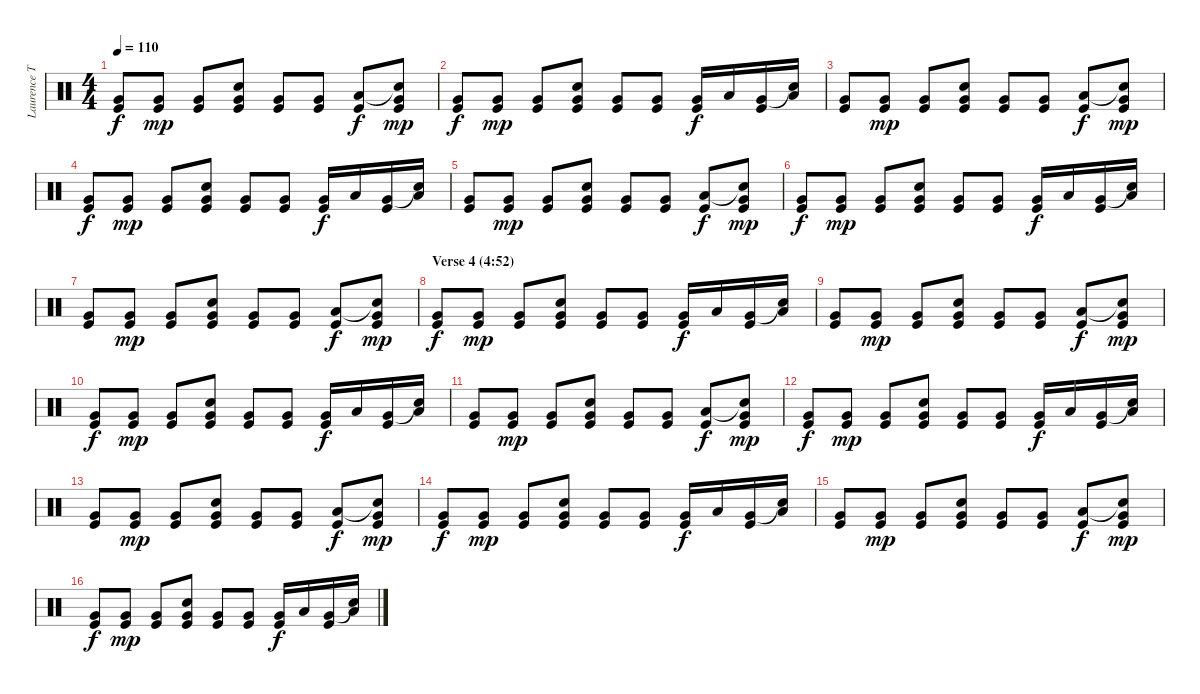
\track ("Laurence Tolhurst (drums)" "Laurence T") {instrument percussion}
\staff {score}
\articulation defaults
\ts (4 4)
\tempo 110
\clef neutral
\ks c
("Very Low Tom (hit)" "Kick (hit)").8{dy f} ("Very Low Tom (hit)" "Kick (hit)").8{dy mp} ("Very Low Tom (hit)" "Kick (hit)").8 ("Snare (hit) 2" "Very Low Tom (hit)" "Kick (hit)").8 ("Very Low Tom (hit)" "Kick (hit)").8 ("Very Low Tom (hit)" "Kick (hit)").8 ("Low Tom (hit)" "Kick (hit)").8{dy f} ("Snare (hit)"{t} "Very Low Tom (hit)" "Kick (hit)").8{dy mp} |
("Very Low Tom (hit)" "Kick (hit)").8{dy f} ("Very Low Tom (hit)" "Kick (hit)").8{dy mp} ("Very Low Tom (hit)" "Kick (hit)").8 ("Snare (hit) 2" "Very Low Tom (hit)" "Kick (hit)").8 ("Very Low Tom (hit)" "Kick (hit)").8 ("Very Low Tom (hit)" "Kick (hit)").8 ("Very Low Tom (hit)" "Kick (hit)").16{dy f} "Low Tom (hit)".16 ("Very Low Tom (hit)" "Kick (hit)").16 ("Snare (hit)"{t} "Low Tom (hit)").16 |
("Very Low Tom (hit)" "Kick (hit)").8 ("Very Low Tom (hit)" "Kick (hit)").8{dy mp} ("Very Low Tom (hit)" "Kick (hit)").8 ("Snare (hit) 2" "Very Low Tom (hit)" "Kick (hit)").8 ("Very Low Tom (hit)" "Kick (hit)").8 ("Very Low Tom (hit)" "Kick (hit)").8 ("Low Tom (hit)" "Kick (hit)").8{dy f} ("Snare (hit)"{t} "Very Low Tom (hit)" "Kick (hit)").8{dy mp} |
("Very Low Tom (hit)" "Kick (hit)").8{dy f} ("Very Low Tom (hit)" "Kick (hit)").8{dy mp} ("Very Low Tom (hit)" "Kick (hit)").8 ("Snare (hit) 2" "Very Low Tom (hit)" "Kick (hit)").8 ("Very Low Tom (hit)" "Kick (hit)").8 ("Very Low Tom (hit)" "Kick (hit)").8 ("Very Low Tom (hit)" "Kick (hit)").16{dy f} "Low Tom (hit)".16 ("Very Low Tom (hit)" "Kick (hit)").16 ("Snare (hit)"{t} "Low Tom (hit)").16 |
("Very Low Tom (hit)" "Kick (hit)").8 ("Very Low Tom (hit)" "Kick (hit)").8{dy mp} ("Very Low Tom (hit)" "Kick (hit)").8 ("Snare (hit) 2" "Very Low Tom (hit)" "Kick (hit)").8 ("Very Low Tom (hit)" "Kick (hit)").8 ("Very Low Tom (hit)" "Kick (hit)").8 ("Low Tom (hit)" "Kick (hit)").8{dy f} ("Snare (hit)"{t} "Very Low Tom (hit)" "Kick (hit)").8{dy mp} |
("Very Low Tom (hit)" "Kick (hit)").8{dy f} ("Very Low Tom (hit)" "Kick (hit)").8{dy mp} ("Very Low Tom (hit)" "Kick (hit)").8 ("Snare (hit) 2" "Very Low Tom (hit)" "Kick (hit)").8 ("Very Low Tom (hit)" "Kick (hit)").8 ("Very Low Tom (hit)" "Kick (hit)").8 ("Very Low Tom (hit)" "Kick (hit)").16{dy f} "Low Tom (hit)".16 ("Very Low Tom (hit)" "Kick (hit)").16 ("Snare (hit)"{t} "Low Tom (hit)").16 |
("Very Low Tom (hit)" "Kick (hit)").8 ("Very Low Tom (hit)" "Kick (hit)").8{dy mp} ("Very Low Tom (hit)" "Kick (hit)").8 ("Snare (hit) 2" "Very Low Tom (hit)" "Kick (hit)").8 ("Very Low Tom (hit)" "Kick (hit)").8 ("Very Low Tom (hit)" "Kick (hit)").8 ("Low Tom (hit)" "Kick (hit)").8{dy f} ("Snare (hit)"{t} "Very Low Tom (hit)" "Kick (hit)").8{dy mp} |
\section ("" "Verse 4 (4:52)")
("Very Low Tom (hit)" "Kick (hit)").8{dy f} ("Very Low Tom (hit)" "Kick (hit)").8{dy mp} ("Very Low Tom (hit)" "Kick (hit)").8 ("Snare (hit) 2" "Very Low Tom (hit)" "Kick (hit)").8 ("Very Low Tom (hit)" "Kick (hit)").8 ("Very Low Tom (hit)" "Kick (hit)").8 ("Very Low Tom (hit)" "Kick (hit)").16{dy f} "Low Tom (hit)".16 ("Very Low Tom (hit)" "Kick (hit)").16 ("Snare (hit)"{t} "Low Tom (hit)").16 |
("Very Low Tom (hit)" "Kick (hit)").8 ("Very Low Tom (hit)" "Kick (hit)").8{dy mp} ("Very Low Tom (hit)" "Kick (hit)").8 ("Snare (hit) 2" "Very Low Tom (hit)" "Kick (hit)").8 ("Very Low Tom (hit)" "Kick (hit)").8 ("Very Low Tom (hit)" "Kick (hit)").8 ("Low Tom (hit)" "Kick (hit)").8{dy f} ("Snare (hit)"{t} "Very Low Tom (hit)" "Kick (hit)").8{dy mp} |
("Very Low Tom (hit)" "Kick (hit)").8{dy f} ("Very Low Tom (hit)" "Kick (hit)").8{dy mp} ("Very Low Tom (hit)" "Kick (hit)").8 ("Snare (hit) 2" "Very Low Tom (hit)" "Kick (hit)").8 ("Very Low Tom (hit)" "Kick (hit)").8 ("Very Low Tom (hit)" "Kick (hit)").8 ("Very Low Tom (hit)" "Kick (hit)").16{dy f} "Low Tom (hit)".16 ("Very Low Tom (hit)" "Kick (hit)").16 ("Snare (hit)"{t} "Low Tom (hit)").16 |
("Very Low Tom (hit)" "Kick (hit)").8 ("Very Low Tom (hit)" "Kick (hit)").8{dy mp} ("Very Low Tom (hit)" "Kick (hit)").8 ("Snare (hit) 2" "Very Low Tom (hit)" "Kick (hit)").8 ("Very Low Tom (hit)" "Kick (hit)").8 ("Very Low Tom (hit)" "Kick (hit)").8 ("Low Tom (hit)" "Kick (hit)").8{dy f} ("Snare (hit)"{t} "Very Low Tom (hit)" "Kick (hit)").8{dy mp} |
("Very Low Tom (hit)" "Kick (hit)").8{dy f} ("Very Low Tom (hit)" "Kick (hit)").8{dy mp} ("Very Low Tom (hit)" "Kick (hit)").8 ("Snare (hit) 2" "Very Low Tom (hit)" "Kick (hit)").8 ("Very Low Tom (hit)" "Kick (hit)").8 ("Very Low Tom (hit)" "Kick (hit)").8 ("Very Low Tom (hit)" "Kick (hit)").16{dy f} "Low Tom (hit)".16 ("Very Low Tom (hit)" "Kick (hit)").16 ("Snare (hit)"{t} "Low Tom (hit)").16 |
("Very Low Tom (hit)" "Kick (hit)").8 ("Very Low Tom (hit)" "Kick (hit)").8{dy mp} ("Very Low Tom (hit)" "Kick (hit)").8 ("Snare (hit) 2" "Very Low Tom (hit)" "Kick (hit)").8 ("Very Low Tom (hit)" "Kick (hit)").8 ("Very Low Tom (hit)" "Kick (hit)").8 ("Low Tom (hit)" "Kick (hit)").8{dy f} ("Snare (hit)"{t} "Very Low Tom (hit)" "Kick (hit)").8{dy mp} |
("Very Low Tom (hit)" "Kick (hit)").8{dy f} ("Very Low Tom (hit)" "Kick (hit)").8{dy mp} ("Very Low Tom (hit)" "Kick (hit)").8 ("Snare (hit) 2" "Very Low Tom (hit)" "Kick (hit)").8 ("Very Low Tom (hit)" "Kick (hit)").8 ("Very Low Tom (hit)" "Kick (hit)").8 ("Very Low Tom (hit)" "Kick (hit)").16{dy f} "Low Tom (hit)".16 ("Very Low Tom (hit)" "Kick (hit)").16 ("Snare (hit)"{t} "Low Tom (hit)").16 |
("Very Low Tom (hit)" "Kick (hit)").8 ("Very Low Tom (hit)" "Kick (hit)").8{dy mp} ("Very Low Tom (hit)" "Kick (hit)").8 ("Snare (hit) 2" "Very Low Tom (hit)" "Kick (hit)").8 ("Very Low Tom (hit)" "Kick (hit)").8 ("Very Low Tom (hit)" "Kick (hit)").8 ("Low Tom (hit)" "Kick (hit)").8{dy f} ("Snare (hit)"{t} "Very Low Tom (hit)" "Kick (hit)").8{dy mp} |
("Very Low Tom (hit)" "Kick (hit)").8{dy f} ("Very Low Tom (hit)" "Kick (hit)").8{dy mp} ("Very Low Tom (hit)" "Kick (hit)").8 ("Snare (hit) 2" "Very Low Tom (hit)" "Kick (hit)").8 ("Very Low Tom (hit)" "Kick (hit)").8 ("Very Low Tom (hit)" "Kick (hit)").8 ("Very Low Tom (hit)" "Kick (hit)").16{dy f} "Low Tom (hit)".16 ("Very Low Tom (hit)" "Kick (hit)").16 ("Snare (hit)"{t} "Low Tom (hit)").16
